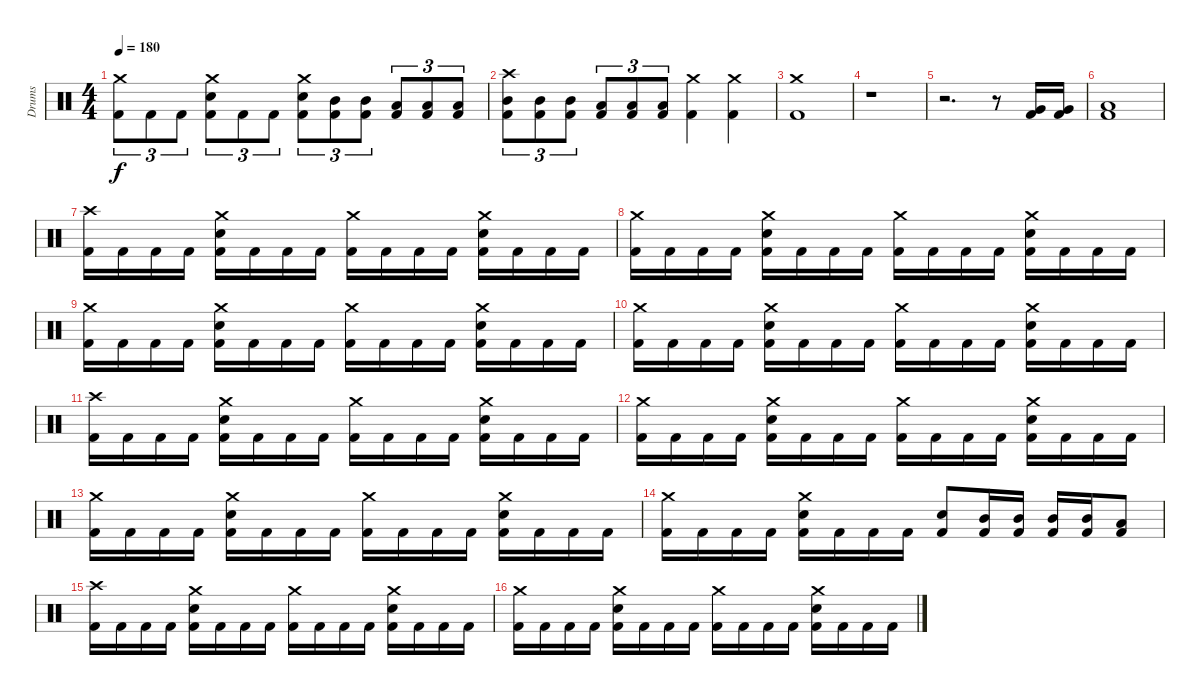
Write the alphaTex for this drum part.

\track ("Drums" "Drums") {instrument percussion}
\staff {score}
\articulation defaults
\ts (4 4)
\tempo 180
\clef neutral
\ks c
("Crash medium (hit)" "Kick (hit) 2").8{tu (3 2) dy f} "Kick (hit) 2".8{tu (3 2)} "Kick (hit) 2".8{tu (3 2)} ("Crash medium (hit)" "Electric Snare (hit)" "Kick (hit) 2").8{tu (3 2)} "Kick (hit) 2".8{tu (3 2)} "Kick (hit) 2".8{tu (3 2)} ("Crash medium (hit)" "Electric Snare (hit)" "Kick (hit) 2").8{tu (3 2)} ("Mid Tom (hit)" "Kick (hit) 2").8{tu (3 2)} ("Mid Tom (hit)" "Kick (hit) 2").8{tu (3 2)} ("Low Tom (hit)" "Kick (hit) 2").8{tu (3 2)} ("Low Tom (hit)" "Kick (hit) 2").8{tu (3 2)} ("Low Tom (hit)" "Kick (hit) 2").8{tu (3 2)} |
("Crash high (hit)" "Mid Tom (hit)" "Kick (hit) 2").8{tu (3 2)} ("Mid Tom (hit)" "Kick (hit) 2").8{tu (3 2)} ("Mid Tom (hit)" "Kick (hit) 2").8{tu (3 2)} ("Low Tom (hit)" "Kick (hit) 2").8{tu (3 2)} ("Low Tom (hit)" "Kick (hit) 2").8{tu (3 2)} ("Low Tom (hit)" "Kick (hit) 2").8{tu (3 2)} ("Crash medium (hit)" "Kick (hit) 2").4 ("Crash medium (hit)" "Kick (hit) 2").4 |
("Crash medium (hit)" "Kick (hit) 2").1 |
r.1 |
r.2{d} r.8 ("Very Low Tom (hit)" "Kick (hit) 2").16 ("Very Low Tom (hit)" "Kick (hit) 2").16 |
("Low Tom (hit)" "Kick (hit) 2").1 |
("Crash high (hit)" "Kick (hit) 2").16 "Kick (hit) 2".16 "Kick (hit) 2".16 "Kick (hit) 2".16 ("Crash medium (hit)" "Electric Snare (hit)" "Kick (hit) 2").16 "Kick (hit) 2".16 "Kick (hit) 2".16 "Kick (hit) 2".16 ("Crash medium (hit)" "Kick (hit) 2").16 "Kick (hit) 2".16 "Kick (hit) 2".16 "Kick (hit) 2".16 ("Crash medium (hit)" "Electric Snare (hit)" "Kick (hit) 2").16 "Kick (hit) 2".16 "Kick (hit) 2".16 "Kick (hit) 2".16 |
("Crash medium (hit)" "Kick (hit) 2").16 "Kick (hit) 2".16 "Kick (hit) 2".16 "Kick (hit) 2".16 ("Crash medium (hit)" "Electric Snare (hit)" "Kick (hit) 2").16 "Kick (hit) 2".16 "Kick (hit) 2".16 "Kick (hit) 2".16 ("Crash medium (hit)" "Kick (hit) 2").16 "Kick (hit) 2".16 "Kick (hit) 2".16 "Kick (hit) 2".16 ("Crash medium (hit)" "Electric Snare (hit)" "Kick (hit) 2").16 "Kick (hit) 2".16 "Kick (hit) 2".16 "Kick (hit) 2".16 |
("Crash medium (hit)" "Kick (hit) 2").16 "Kick (hit) 2".16 "Kick (hit) 2".16 "Kick (hit) 2".16 ("Crash medium (hit)" "Electric Snare (hit)" "Kick (hit) 2").16 "Kick (hit) 2".16 "Kick (hit) 2".16 "Kick (hit) 2".16 ("Crash medium (hit)" "Kick (hit) 2").16 "Kick (hit) 2".16 "Kick (hit) 2".16 "Kick (hit) 2".16 ("Crash medium (hit)" "Electric Snare (hit)" "Kick (hit) 2").16 "Kick (hit) 2".16 "Kick (hit) 2".16 "Kick (hit) 2".16 |
("Crash medium (hit)" "Kick (hit) 2").16 "Kick (hit) 2".16 "Kick (hit) 2".16 "Kick (hit) 2".16 ("Crash medium (hit)" "Electric Snare (hit)" "Kick (hit) 2").16 "Kick (hit) 2".16 "Kick (hit) 2".16 "Kick (hit) 2".16 ("Crash medium (hit)" "Kick (hit) 2").16 "Kick (hit) 2".16 "Kick (hit) 2".16 "Kick (hit) 2".16 ("Crash medium (hit)" "Electric Snare (hit)" "Kick (hit) 2").16 "Kick (hit) 2".16 "Kick (hit) 2".16 "Kick (hit) 2".16 |
("Crash high (hit)" "Kick (hit) 2").16 "Kick (hit) 2".16 "Kick (hit) 2".16 "Kick (hit) 2".16 ("Crash medium (hit)" "Electric Snare (hit)" "Kick (hit) 2").16 "Kick (hit) 2".16 "Kick (hit) 2".16 "Kick (hit) 2".16 ("Crash medium (hit)" "Kick (hit) 2").16 "Kick (hit) 2".16 "Kick (hit) 2".16 "Kick (hit) 2".16 ("Crash medium (hit)" "Electric Snare (hit)" "Kick (hit) 2").16 "Kick (hit) 2".16 "Kick (hit) 2".16 "Kick (hit) 2".16 |
("Crash medium (hit)" "Kick (hit) 2").16 "Kick (hit) 2".16 "Kick (hit) 2".16 "Kick (hit) 2".16 ("Crash medium (hit)" "Electric Snare (hit)" "Kick (hit) 2").16 "Kick (hit) 2".16 "Kick (hit) 2".16 "Kick (hit) 2".16 ("Crash medium (hit)" "Kick (hit) 2").16 "Kick (hit) 2".16 "Kick (hit) 2".16 "Kick (hit) 2".16 ("Crash medium (hit)" "Electric Snare (hit)" "Kick (hit) 2").16 "Kick (hit) 2".16 "Kick (hit) 2".16 "Kick (hit) 2".16 |
("Crash medium (hit)" "Kick (hit) 2").16 "Kick (hit) 2".16 "Kick (hit) 2".16 "Kick (hit) 2".16 ("Crash medium (hit)" "Electric Snare (hit)" "Kick (hit) 2").16 "Kick (hit) 2".16 "Kick (hit) 2".16 "Kick (hit) 2".16 ("Crash medium (hit)" "Kick (hit) 2").16 "Kick (hit) 2".16 "Kick (hit) 2".16 "Kick (hit) 2".16 ("Crash medium (hit)" "Electric Snare (hit)" "Kick (hit) 2").16 "Kick (hit) 2".16 "Kick (hit) 2".16 "Kick (hit) 2".16 |
("Crash medium (hit)" "Kick (hit) 2").16 "Kick (hit) 2".16 "Kick (hit) 2".16 "Kick (hit) 2".16 ("Crash medium (hit)" "Electric Snare (hit)" "Kick (hit) 2").16 "Kick (hit) 2".16 "Kick (hit) 2".16 "Kick (hit) 2".16 ("Electric Snare (hit)" "Kick (hit) 2").8 ("Mid Tom (hit)" "Kick (hit) 2").16 ("Mid Tom (hit)" "Kick (hit) 2").16 ("Mid Tom (hit)" "Kick (hit) 2").16 ("Mid Tom (hit)" "Kick (hit) 2").16 ("Low Tom (hit)" "Kick (hit) 2").8 |
("Crash high (hit)" "Kick (hit) 2").16 "Kick (hit) 2".16 "Kick (hit) 2".16 "Kick (hit) 2".16 ("Crash medium (hit)" "Electric Snare (hit)" "Kick (hit) 2").16 "Kick (hit) 2".16 "Kick (hit) 2".16 "Kick (hit) 2".16 ("Crash medium (hit)" "Kick (hit) 2").16 "Kick (hit) 2".16 "Kick (hit) 2".16 "Kick (hit) 2".16 ("Crash medium (hit)" "Electric Snare (hit)" "Kick (hit) 2").16 "Kick (hit) 2".16 "Kick (hit) 2".16 "Kick (hit) 2".16 |
("Crash medium (hit)" "Kick (hit) 2").16 "Kick (hit) 2".16 "Kick (hit) 2".16 "Kick (hit) 2".16 ("Crash medium (hit)" "Electric Snare (hit)" "Kick (hit) 2").16 "Kick (hit) 2".16 "Kick (hit) 2".16 "Kick (hit) 2".16 ("Crash medium (hit)" "Kick (hit) 2").16 "Kick (hit) 2".16 "Kick (hit) 2".16 "Kick (hit) 2".16 ("Crash medium (hit)" "Electric Snare (hit)" "Kick (hit) 2").16 "Kick (hit) 2".16 "Kick (hit) 2".16 "Kick (hit) 2".16
